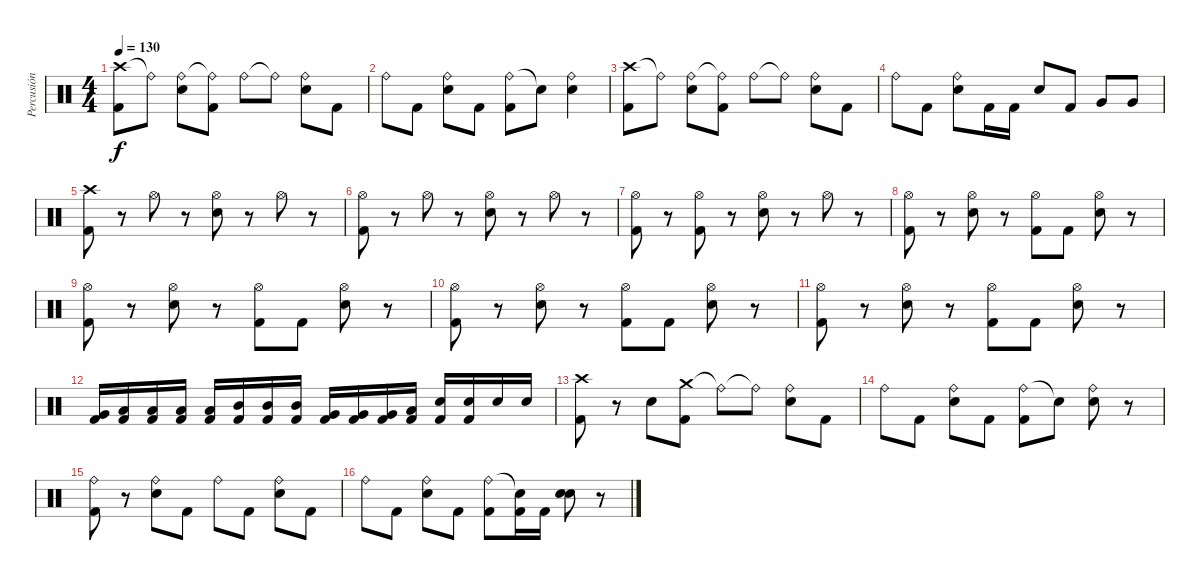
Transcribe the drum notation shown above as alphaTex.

\track ("Percusión" "Percusión") {instrument percussion}
\staff {score}
\articulation defaults
\ts (4 4)
\tempo 130
\clef neutral
\ks c
("Crash high (hit)" "Kick (hit) 2").8{dy f} "Ride (bell)"{t}.8 ("Ride (bell)" "Snare (hit) 2").8 ("Ride (bell)"{t} "Kick (hit) 2").8 "Ride (bell)".8 "Ride (bell)"{t}.8 ("Ride (bell)" "Snare (hit) 2").8 "Kick (hit) 2".8 |
"Ride (bell)".8 "Kick (hit) 2".8 ("Ride (bell)" "Snare (hit) 2").8 "Kick (hit) 2".8 ("Ride (bell)" "Kick (hit) 2").8 "Snare (hit)"{t}.8 ("Ride (bell)" "Snare (hit) 2").4 |
("Crash high (hit)" "Kick (hit) 2").8 "Ride (bell)"{t}.8 ("Ride (bell)" "Snare (hit) 2").8 ("Ride (bell)"{t} "Kick (hit) 2").8 "Ride (bell)".8 "Ride (bell)"{t}.8 ("Ride (bell)" "Snare (hit) 2").8 "Kick (hit) 2".8 |
"Ride (bell)".8 "Kick (hit) 2".8 ("Ride (bell)" "Snare (hit) 2").8 "Kick (hit) 2".16 "Kick (hit) 2".16 "Snare (hit) 2".8 "Kick (hit) 2".8 "Very Low Tom (hit)".8 "Very Low Tom (hit)".8 |
("Kick (hit) 2" "Crash high (hit)").8 r.8 "Hi-Hat (open)".8 r.8 ("Snare (hit) 2" "Hi-Hat (open)").8 r.8 "Hi-Hat (open)".8 r.8 |
("Kick (hit) 2" "Hi-Hat (open)").8 r.8 "Hi-Hat (open)".8 r.8 ("Snare (hit) 2" "Hi-Hat (open)").8 r.8 "Hi-Hat (open)".8 r.8 |
("Kick (hit) 2" "Hi-Hat (open)").8 r.8 ("Kick (hit) 2" "Hi-Hat (open)").8 r.8 ("Snare (hit) 2" "Hi-Hat (open)").8 r.8 "Hi-Hat (open)".8 r.8 |
("Kick (hit) 2" "Hi-Hat (open)").8 r.8 ("Snare (hit) 2" "Hi-Hat (open)").8 r.8 ("Kick (hit) 2" "Hi-Hat (open)").8 "Kick (hit) 2".8 ("Snare (hit) 2" "Hi-Hat (open)").8 r.8 |
("Kick (hit) 2" "Hi-Hat (open)").8 r.8 ("Snare (hit) 2" "Hi-Hat (open)").8 r.8 ("Kick (hit) 2" "Hi-Hat (open)").8 "Kick (hit) 2".8 ("Snare (hit) 2" "Hi-Hat (open)").8 r.8 |
("Kick (hit) 2" "Hi-Hat (open)").8 r.8 ("Snare (hit) 2" "Hi-Hat (open)").8 r.8 ("Kick (hit) 2" "Hi-Hat (open)").8 "Kick (hit) 2".8 ("Snare (hit) 2" "Hi-Hat (open)").8 r.8 |
("Kick (hit) 2" "Hi-Hat (open)").8 r.8 ("Snare (hit) 2" "Hi-Hat (open)").8 r.8 ("Kick (hit) 2" "Hi-Hat (open)").8 "Kick (hit) 2".8 ("Snare (hit) 2" "Hi-Hat (open)").8 r.8 |
("Very Low Tom (hit)" "Kick (hit) 2").16 ("Low Tom (hit)" "Kick (hit) 2").16 ("Low Tom (hit)" "Kick (hit) 2").16 ("Low Tom (hit)" "Kick (hit) 2").16 ("Low Tom (hit)" "Kick (hit) 2").16 ("Mid Tom (hit)" "Kick (hit) 2").16 ("Mid Tom (hit)" "Kick (hit) 2").16 ("Mid Tom (hit)" "Kick (hit) 2").16 ("Very Low Tom (hit)" "Kick (hit) 2").16 ("Very Low Tom (hit)" "Kick (hit) 2").16 ("Very Low Tom (hit)" "Kick (hit) 2").16 ("Low Floor Tom (hit)" "Kick (hit) 2").16 ("Snare (hit) 2" "Kick (hit) 2").16 ("Snare (hit) 2" "Kick (hit) 2").16 "Snare (hit) 2".16 "Snare (hit) 2".16 |
("Crash high (hit)" "Kick (hit) 2").8 r.8 "Snare (hit) 2".8 ("Crash medium (hit)" "Kick (hit) 2").8 "Ride (bell)"{t}.8 "Ride (bell)"{t}.8 ("Ride (bell)" "Snare (hit) 2").8 "Kick (hit) 2".8 |
"Ride (bell)".8 "Kick (hit) 2".8 ("Ride (bell)" "Snare (hit) 2").8 "Kick (hit) 2".8 ("Ride (bell)" "Kick (hit) 2").8 "Snare (hit)"{t}.8 ("Ride (bell)" "Snare (hit) 2").8 r.8 |
("Ride (bell)" "Kick (hit) 2").8 r.8 ("Ride (bell)" "Snare (hit) 2").8 "Kick (hit) 2".8 "Ride (bell)".8 "Kick (hit) 2".8 ("Ride (bell)" "Snare (hit) 2").8 "Kick (hit) 2".8 |
"Ride (bell)".8 "Kick (hit) 2".8 ("Ride (bell)" "Snare (hit) 2").8 "Kick (hit) 2".8 ("Ride (bell)" "Kick (hit) 2").8 ("Snare (hit)"{t} "Kick (hit) 2").16 "Kick (hit) 2".16 ("Snare (hit) 2" "Snare (hit) 2").8 r.8
